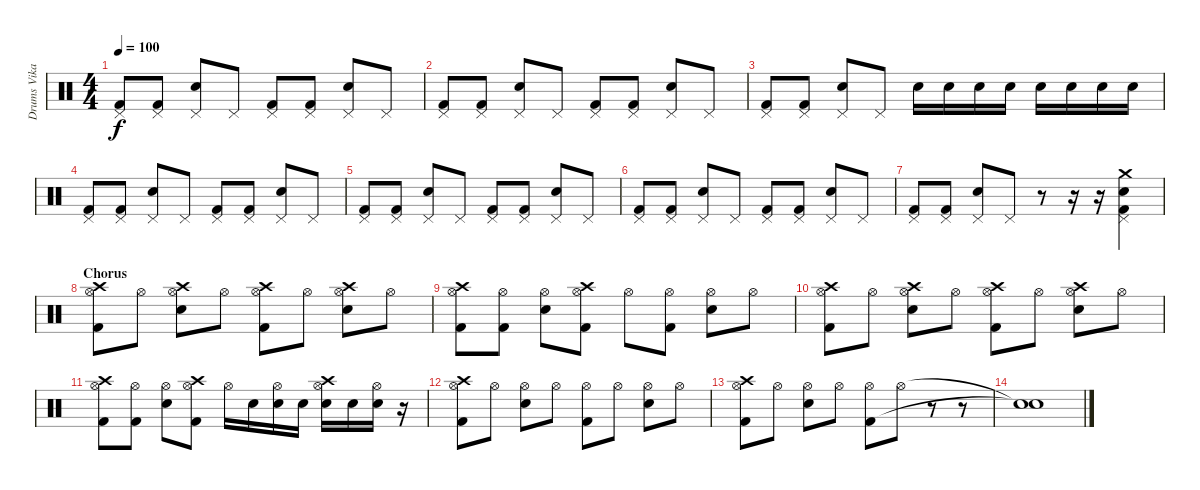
\track ("Drums Vikadel" "Drums Vika") {instrument percussion}
\staff {score}
\articulation defaults
\ts (4 4)
\tempo 100
\clef neutral
\ks c
("Pedal Hi-Hat (hit)" "Kick (hit) 2").8{dy f} ("Pedal Hi-Hat (hit)" "Kick (hit) 2").8 ("Pedal Hi-Hat (hit)" "Electric Snare (hit)").8 "Pedal Hi-Hat (hit)".8 ("Pedal Hi-Hat (hit)" "Kick (hit) 2").8 ("Pedal Hi-Hat (hit)" "Kick (hit) 2").8 ("Pedal Hi-Hat (hit)" "Electric Snare (hit)").8 "Pedal Hi-Hat (hit)".8 |
("Pedal Hi-Hat (hit)" "Kick (hit) 2").8 ("Pedal Hi-Hat (hit)" "Kick (hit) 2").8 ("Pedal Hi-Hat (hit)" "Electric Snare (hit)").8 "Pedal Hi-Hat (hit)".8 ("Pedal Hi-Hat (hit)" "Kick (hit) 2").8 ("Pedal Hi-Hat (hit)" "Kick (hit) 2").8 ("Pedal Hi-Hat (hit)" "Electric Snare (hit)").8 "Pedal Hi-Hat (hit)".8 |
("Pedal Hi-Hat (hit)" "Kick (hit) 2").8 ("Pedal Hi-Hat (hit)" "Kick (hit) 2").8 ("Pedal Hi-Hat (hit)" "Electric Snare (hit)").8 "Pedal Hi-Hat (hit)".8 "Electric Snare (hit)".16 "Electric Snare (hit)".16 "Electric Snare (hit)".16 "Electric Snare (hit)".16 "Electric Snare (hit)".16 "Electric Snare (hit)".16 "Electric Snare (hit)".16 "Electric Snare (hit)".16 |
("Pedal Hi-Hat (hit)" "Kick (hit) 2").8 ("Pedal Hi-Hat (hit)" "Kick (hit) 2").8 ("Pedal Hi-Hat (hit)" "Electric Snare (hit)").8 "Pedal Hi-Hat (hit)".8 ("Pedal Hi-Hat (hit)" "Kick (hit) 2").8 ("Pedal Hi-Hat (hit)" "Kick (hit) 2").8 ("Pedal Hi-Hat (hit)" "Electric Snare (hit)").8 "Pedal Hi-Hat (hit)".8 |
("Pedal Hi-Hat (hit)" "Kick (hit) 2").8 ("Pedal Hi-Hat (hit)" "Kick (hit) 2").8 ("Pedal Hi-Hat (hit)" "Electric Snare (hit)").8 "Pedal Hi-Hat (hit)".8 ("Pedal Hi-Hat (hit)" "Kick (hit) 2").8 ("Pedal Hi-Hat (hit)" "Kick (hit) 2").8 ("Pedal Hi-Hat (hit)" "Electric Snare (hit)").8 "Pedal Hi-Hat (hit)".8 |
("Pedal Hi-Hat (hit)" "Kick (hit) 2").8 ("Pedal Hi-Hat (hit)" "Kick (hit) 2").8 ("Pedal Hi-Hat (hit)" "Electric Snare (hit)").8 "Pedal Hi-Hat (hit)".8 ("Pedal Hi-Hat (hit)" "Kick (hit) 2").8 ("Pedal Hi-Hat (hit)" "Kick (hit) 2").8 ("Pedal Hi-Hat (hit)" "Electric Snare (hit)").8 "Pedal Hi-Hat (hit)".8 |
("Pedal Hi-Hat (hit)" "Kick (hit) 2").8 ("Pedal Hi-Hat (hit)" "Kick (hit) 2").8 ("Pedal Hi-Hat (hit)" "Electric Snare (hit)").8 "Pedal Hi-Hat (hit)".8 r.8 r.16 r.16 ("Pedal Hi-Hat (hit)" "Kick (hit) 2" "Crash medium (hit)" "Electric Snare (hit)").4 |
\section ("" "Chorus")
("Crash high (hit)" "Kick (hit) 2" "Hi-Hat (open)").8 "Hi-Hat (open)".8 ("Crash high (hit)" "Snare (hit) 2" "Hi-Hat (open)").8 "Hi-Hat (open)".8 ("Crash high (hit)" "Kick (hit) 2" "Hi-Hat (open)").8 "Hi-Hat (open)".8 ("Crash high (hit)" "Snare (hit) 2" "Hi-Hat (open)").8 "Hi-Hat (open)".8 |
("Crash high (hit)" "Kick (hit) 2" "Hi-Hat (open)").8 ("Kick (hit) 2" "Hi-Hat (open)").8 ("Snare (hit) 2" "Hi-Hat (open)").8 ("Crash high (hit)" "Kick (hit) 2" "Hi-Hat (open)").8 "Hi-Hat (open)".8 ("Kick (hit) 2" "Hi-Hat (open)").8 ("Snare (hit) 2" "Hi-Hat (open)").8 "Hi-Hat (open)".8 |
("Crash high (hit)" "Kick (hit) 2" "Hi-Hat (open)").8 "Hi-Hat (open)".8 ("Crash high (hit)" "Snare (hit) 2" "Hi-Hat (open)").8 "Hi-Hat (open)".8 ("Crash high (hit)" "Kick (hit) 2" "Hi-Hat (open)").8 "Hi-Hat (open)".8 ("Crash high (hit)" "Snare (hit) 2" "Hi-Hat (open)").8 "Hi-Hat (open)".8 |
("Crash high (hit)" "Kick (hit) 2" "Hi-Hat (open)").8 ("Kick (hit) 2" "Hi-Hat (open)").8 ("Snare (hit) 2" "Hi-Hat (open)").8 ("Crash high (hit)" "Kick (hit) 2" "Hi-Hat (open)").8 "Hi-Hat (open)".16 "Snare (hit) 2".16 ("Snare (hit) 2" "Hi-Hat (open)").16 "Snare (hit) 2".16 ("Crash high (hit)" "Snare (hit) 2" "Hi-Hat (open)").16 "Snare (hit) 2".16 ("Snare (hit) 2" "Hi-Hat (open)").16 r.16 |
("Hi-Hat (open)" "Crash high (hit)" "Kick (hit) 2").8 "Hi-Hat (open)".8 ("Hi-Hat (open)" "Electric Snare (hit)").8 "Hi-Hat (open)".8 ("Hi-Hat (open)" "Kick (hit) 2").8 "Hi-Hat (open)".8 ("Hi-Hat (open)" "Electric Snare (hit)").8 "Hi-Hat (open)".8 |
("Hi-Hat (open)" "Crash high (hit)" "Kick (hit) 2").8 "Hi-Hat (open)".8 ("Hi-Hat (open)" "Electric Snare (hit)").8 "Hi-Hat (open)".8 ("Hi-Hat (open)" "Kick (hit) 2").8 "Hi-Hat (open)".8 r.8 r.8 |
("Snare (hit)"{t} "Snare (hit)"{t}).1
